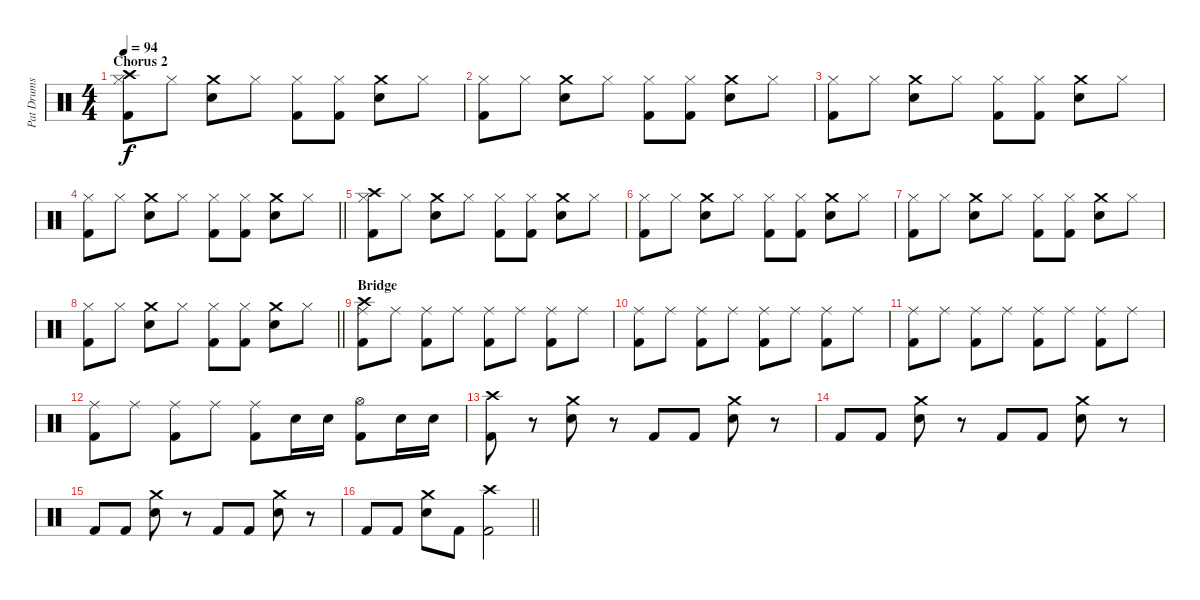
\track ("Pat Drums" "Pat Drums") {instrument percussion}
\staff {score}
\articulation defaults
\ts (4 4)
\section ("" "Chorus 2")
\tempo 94
\clef neutral
\ks c
("Hi-Hat (closed)" "Kick (hit) 2" "Crash high (hit)").8{dy f} "Hi-Hat (closed)".8 ("Electric Snare (hit)" "Crash medium (hit)").8 "Hi-Hat (closed)".8 ("Hi-Hat (closed)" "Kick (hit) 2").8 ("Hi-Hat (closed)" "Kick (hit) 2").8 ("Electric Snare (hit)" "Crash medium (hit)").8 "Hi-Hat (closed)".8 |
("Hi-Hat (closed)" "Kick (hit) 2").8 "Hi-Hat (closed)".8 ("Electric Snare (hit)" "Crash medium (hit)").8 "Hi-Hat (closed)".8 ("Hi-Hat (closed)" "Kick (hit) 2").8 ("Hi-Hat (closed)" "Kick (hit) 2").8 ("Electric Snare (hit)" "Crash medium (hit)").8 "Hi-Hat (closed)".8 |
("Hi-Hat (closed)" "Kick (hit) 2").8 "Hi-Hat (closed)".8 ("Electric Snare (hit)" "Crash medium (hit)").8 "Hi-Hat (closed)".8 ("Hi-Hat (closed)" "Kick (hit) 2").8 ("Hi-Hat (closed)" "Kick (hit) 2").8 ("Electric Snare (hit)" "Crash medium (hit)").8 "Hi-Hat (closed)".8 |
\barLineRight lightlight
("Hi-Hat (closed)" "Kick (hit) 2").8 "Hi-Hat (closed)".8 ("Electric Snare (hit)" "Crash medium (hit)").8 "Hi-Hat (closed)".8 ("Hi-Hat (closed)" "Kick (hit) 2").8 ("Hi-Hat (closed)" "Kick (hit) 2").8 ("Electric Snare (hit)" "Crash medium (hit)").8 "Hi-Hat (closed)".8 |
("Hi-Hat (closed)" "Kick (hit) 2" "Crash high (hit)").8 "Hi-Hat (closed)".8 ("Electric Snare (hit)" "Crash medium (hit)").8 "Hi-Hat (closed)".8 ("Hi-Hat (closed)" "Kick (hit) 2").8 ("Hi-Hat (closed)" "Kick (hit) 2").8 ("Electric Snare (hit)" "Crash medium (hit)").8 "Hi-Hat (closed)".8 |
("Hi-Hat (closed)" "Kick (hit) 2").8 "Hi-Hat (closed)".8 ("Electric Snare (hit)" "Crash medium (hit)").8 "Hi-Hat (closed)".8 ("Hi-Hat (closed)" "Kick (hit) 2").8 ("Hi-Hat (closed)" "Kick (hit) 2").8 ("Electric Snare (hit)" "Crash medium (hit)").8 "Hi-Hat (closed)".8 |
("Hi-Hat (closed)" "Kick (hit) 2").8 "Hi-Hat (closed)".8 ("Electric Snare (hit)" "Crash medium (hit)").8 "Hi-Hat (closed)".8 ("Hi-Hat (closed)" "Kick (hit) 2").8 ("Hi-Hat (closed)" "Kick (hit) 2").8 ("Electric Snare (hit)" "Crash medium (hit)").8 "Hi-Hat (closed)".8 |
\barLineRight lightlight
("Hi-Hat (closed)" "Kick (hit) 2").8 "Hi-Hat (closed)".8 ("Electric Snare (hit)" "Crash medium (hit)").8 "Hi-Hat (closed)".8 ("Hi-Hat (closed)" "Kick (hit) 2").8 ("Hi-Hat (closed)" "Kick (hit) 2").8 ("Electric Snare (hit)" "Crash medium (hit)").8 "Hi-Hat (closed)".8 |
\section ("" "Bridge")
("Ride (middle)" "Kick (hit) 2" "Crash high (hit)").8 "Ride (middle)".8 ("Ride (middle)" "Kick (hit) 2").8 "Ride (middle)".8 ("Ride (middle)" "Kick (hit) 2").8 "Ride (middle)".8 ("Ride (middle)" "Kick (hit) 2").8 "Ride (middle)".8 |
("Ride (middle)" "Kick (hit) 2").8 "Ride (middle)".8 ("Ride (middle)" "Kick (hit) 2").8 "Ride (middle)".8 ("Ride (middle)" "Kick (hit) 2").8 "Ride (middle)".8 ("Ride (middle)" "Kick (hit) 2").8 "Ride (middle)".8 |
("Ride (middle)" "Kick (hit) 2").8 "Ride (middle)".8 ("Ride (middle)" "Kick (hit) 2").8 "Ride (middle)".8 ("Ride (middle)" "Kick (hit) 2").8 "Ride (middle)".8 ("Ride (middle)" "Kick (hit) 2").8 "Ride (middle)".8 |
("Ride (middle)" "Kick (hit) 2").8 "Ride (middle)".8 ("Ride (middle)" "Kick (hit) 2").8 "Ride (middle)".8 ("Ride (middle)" "Kick (hit) 2").8 "Electric Snare (hit)".16 "Electric Snare (hit)".16 ("Hi-Hat (open)" "Kick (hit) 2").8 "Electric Snare (hit)".16 "Electric Snare (hit)".16 |
("Kick (hit) 2" "Crash high (hit)").8 r.8 ("Electric Snare (hit)" "Crash medium (hit)").8 r.8 "Kick (hit) 2".8 "Kick (hit) 2".8 ("Electric Snare (hit)" "Crash medium (hit)").8 r.8 |
"Kick (hit) 2".8 "Kick (hit) 2".8 ("Electric Snare (hit)" "Crash medium (hit)").8 r.8 "Kick (hit) 2".8 "Kick (hit) 2".8 ("Electric Snare (hit)" "Crash medium (hit)").8 r.8 |
"Kick (hit) 2".8 "Kick (hit) 2".8 ("Electric Snare (hit)" "Crash medium (hit)").8 r.8 "Kick (hit) 2".8 "Kick (hit) 2".8 ("Electric Snare (hit)" "Crash medium (hit)").8 r.8 |
\barLineRight lightlight "Kick (hit) 2".8 "Kick (hit) 2".8
("Electric Snare (hit)" "Crash medium (hit)").8 "Kick (hit) 2".8 ("Kick (hit) 2" "Crash high (hit)").2
